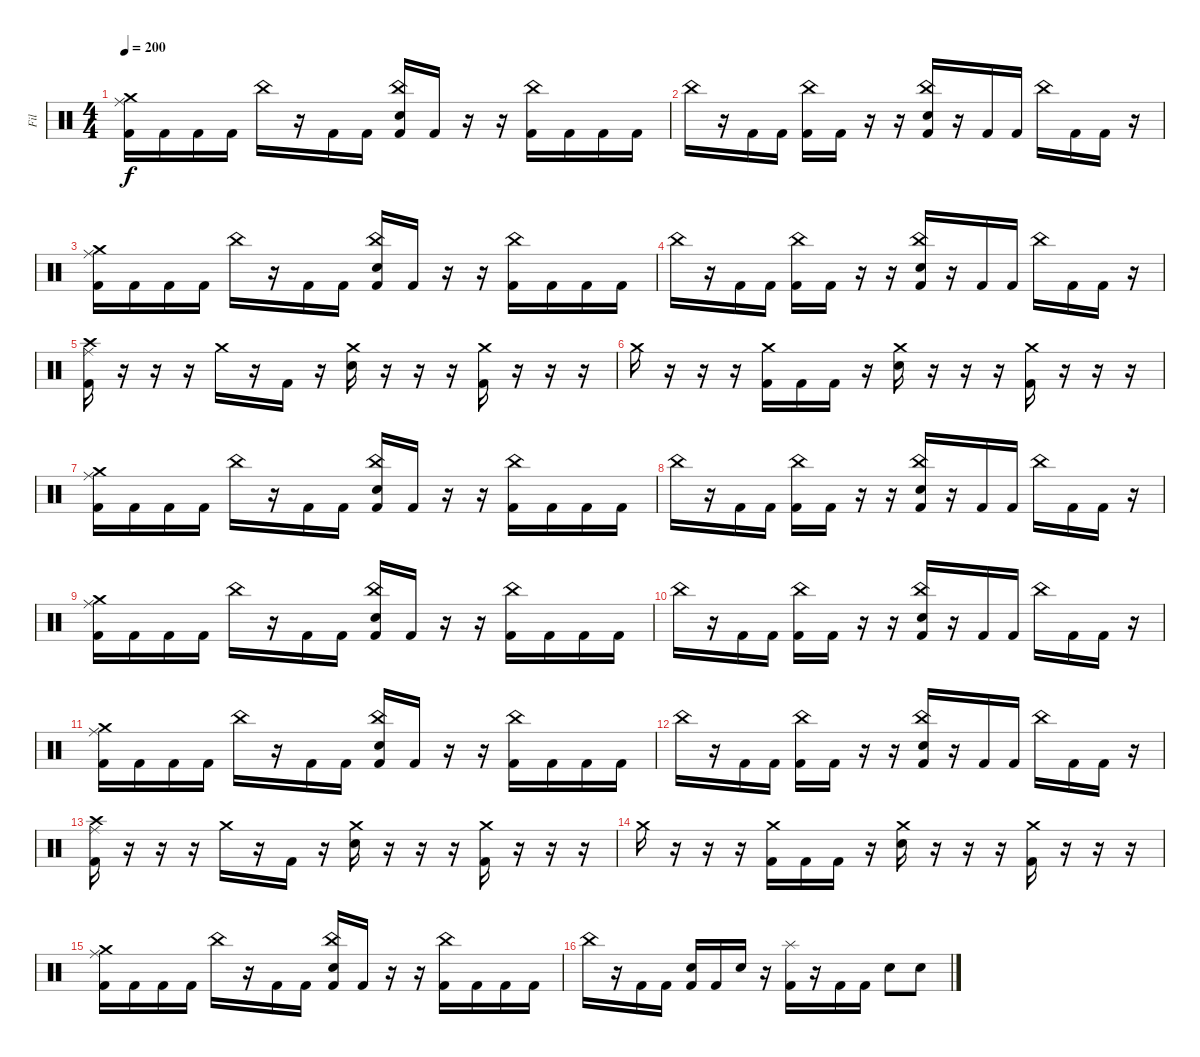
\track ("Fil" "Fil") {instrument percussion}
\staff {score}
\articulation defaults
\ts (4 4)
\tempo 200
\clef neutral
\ks c
("Crash medium (hit)" "Ride (middle)" "Kick (hit) 2").16{dy f} "Kick (hit) 2".16 "Kick (hit) 2".16 "Kick (hit) 2".16 "China (hit)".16 r.16 "Kick (hit) 2".16 "Kick (hit) 2".16 ("China (hit)" "Electric Snare (hit)" "Kick (hit) 2").16 "Kick (hit) 2".16 r.16 r.16 ("China (hit)" "Kick (hit) 2").16 "Kick (hit) 2".16 "Kick (hit) 2".16 "Kick (hit) 2".16 |
"China (hit)".16 r.16 "Kick (hit) 2".16 "Kick (hit) 2".16 ("China (hit)" "Kick (hit) 2").16 "Kick (hit) 2".16 r.16 r.16 ("China (hit)" "Electric Snare (hit)" "Kick (hit) 2").16 r.16 "Kick (hit) 2".16 "Kick (hit) 2".16 "China (hit)".16 "Kick (hit) 2".16 "Kick (hit) 2".16 r.16 |
("Crash medium (hit)" "Ride (middle)" "Kick (hit) 2").16 "Kick (hit) 2".16 "Kick (hit) 2".16 "Kick (hit) 2".16 "China (hit)".16 r.16 "Kick (hit) 2".16 "Kick (hit) 2".16 ("China (hit)" "Electric Snare (hit)" "Kick (hit) 2").16 "Kick (hit) 2".16 r.16 r.16 ("China (hit)" "Kick (hit) 2").16 "Kick (hit) 2".16 "Kick (hit) 2".16 "Kick (hit) 2".16 |
"China (hit)".16 r.16 "Kick (hit) 2".16 "Kick (hit) 2".16 ("China (hit)" "Kick (hit) 2").16 "Kick (hit) 2".16 r.16 r.16 ("China (hit)" "Electric Snare (hit)" "Kick (hit) 2").16 r.16 "Kick (hit) 2".16 "Kick (hit) 2".16 "China (hit)".16 "Kick (hit) 2".16 "Kick (hit) 2".16 r.16 |
("Crash high (hit)" "Ride (middle)" "Kick (hit) 2").16 r.16 r.16 r.16 "Crash medium (hit)".16 r.16 "Kick (hit) 2".16 r.16 ("Crash medium (hit)" "Electric Snare (hit)").16 r.16 r.16 r.16 ("Crash medium (hit)" "Kick (hit) 2").16 r.16 r.16 r.16 |
"Crash medium (hit)".16 r.16 r.16 r.16 ("Crash medium (hit)" "Kick (hit) 2").16 "Kick (hit) 2".16 "Kick (hit) 2".16 r.16 ("Crash medium (hit)" "Electric Snare (hit)").16 r.16 r.16 r.16 ("Crash medium (hit)" "Kick (hit) 2").16 r.16 r.16 r.16 |
("Crash medium (hit)" "Ride (middle)" "Kick (hit) 2").16 "Kick (hit) 2".16 "Kick (hit) 2".16 "Kick (hit) 2".16 "China (hit)".16 r.16 "Kick (hit) 2".16 "Kick (hit) 2".16 ("China (hit)" "Electric Snare (hit)" "Kick (hit) 2").16 "Kick (hit) 2".16 r.16 r.16 ("China (hit)" "Kick (hit) 2").16 "Kick (hit) 2".16 "Kick (hit) 2".16 "Kick (hit) 2".16 |
"China (hit)".16 r.16 "Kick (hit) 2".16 "Kick (hit) 2".16 ("China (hit)" "Kick (hit) 2").16 "Kick (hit) 2".16 r.16 r.16 ("China (hit)" "Electric Snare (hit)" "Kick (hit) 2").16 r.16 "Kick (hit) 2".16 "Kick (hit) 2".16 "China (hit)".16 "Kick (hit) 2".16 "Kick (hit) 2".16 r.16 |
("Crash medium (hit)" "Ride (middle)" "Kick (hit) 2").16 "Kick (hit) 2".16 "Kick (hit) 2".16 "Kick (hit) 2".16 "China (hit)".16 r.16 "Kick (hit) 2".16 "Kick (hit) 2".16 ("China (hit)" "Electric Snare (hit)" "Kick (hit) 2").16 "Kick (hit) 2".16 r.16 r.16 ("China (hit)" "Kick (hit) 2").16 "Kick (hit) 2".16 "Kick (hit) 2".16 "Kick (hit) 2".16 |
"China (hit)".16 r.16 "Kick (hit) 2".16 "Kick (hit) 2".16 ("China (hit)" "Kick (hit) 2").16 "Kick (hit) 2".16 r.16 r.16 ("China (hit)" "Electric Snare (hit)" "Kick (hit) 2").16 r.16 "Kick (hit) 2".16 "Kick (hit) 2".16 "China (hit)".16 "Kick (hit) 2".16 "Kick (hit) 2".16 r.16 |
("Crash medium (hit)" "Ride (middle)" "Kick (hit) 2").16 "Kick (hit) 2".16 "Kick (hit) 2".16 "Kick (hit) 2".16 "China (hit)".16 r.16 "Kick (hit) 2".16 "Kick (hit) 2".16 ("China (hit)" "Electric Snare (hit)" "Kick (hit) 2").16 "Kick (hit) 2".16 r.16 r.16 ("China (hit)" "Kick (hit) 2").16 "Kick (hit) 2".16 "Kick (hit) 2".16 "Kick (hit) 2".16 |
"China (hit)".16 r.16 "Kick (hit) 2".16 "Kick (hit) 2".16 ("China (hit)" "Kick (hit) 2").16 "Kick (hit) 2".16 r.16 r.16 ("China (hit)" "Electric Snare (hit)" "Kick (hit) 2").16 r.16 "Kick (hit) 2".16 "Kick (hit) 2".16 "China (hit)".16 "Kick (hit) 2".16 "Kick (hit) 2".16 r.16 |
("Crash high (hit)" "Ride (middle)" "Kick (hit) 2").16 r.16 r.16 r.16 "Crash medium (hit)".16 r.16 "Kick (hit) 2".16 r.16 ("Crash medium (hit)" "Electric Snare (hit)").16 r.16 r.16 r.16 ("Crash medium (hit)" "Kick (hit) 2").16 r.16 r.16 r.16 |
"Crash medium (hit)".16 r.16 r.16 r.16 ("Crash medium (hit)" "Kick (hit) 2").16 "Kick (hit) 2".16 "Kick (hit) 2".16 r.16 ("Crash medium (hit)" "Electric Snare (hit)").16 r.16 r.16 r.16 ("Crash medium (hit)" "Kick (hit) 2").16 r.16 r.16 r.16 |
("Crash medium (hit)" "Ride (middle)" "Kick (hit) 2").16 "Kick (hit) 2".16 "Kick (hit) 2".16 "Kick (hit) 2".16 "China (hit)".16 r.16 "Kick (hit) 2".16 "Kick (hit) 2".16 ("China (hit)" "Electric Snare (hit)" "Kick (hit) 2").16 "Kick (hit) 2".16 r.16 r.16 ("China (hit)" "Kick (hit) 2").16 "Kick (hit) 2".16 "Kick (hit) 2".16 "Kick (hit) 2".16 |
"China (hit)".16 r.16 "Kick (hit) 2".16 "Kick (hit) 2".16 ("Snare (hit) 2" "Kick (hit) 2").16 "Kick (hit) 2".16 "Snare (hit) 2".16 r.16 ("Splash (hit)" "Kick (hit) 2").16 r.16 "Kick (hit) 2".16 "Kick (hit) 2".16 "Snare (hit) 2".8 "Snare (hit) 2".8
